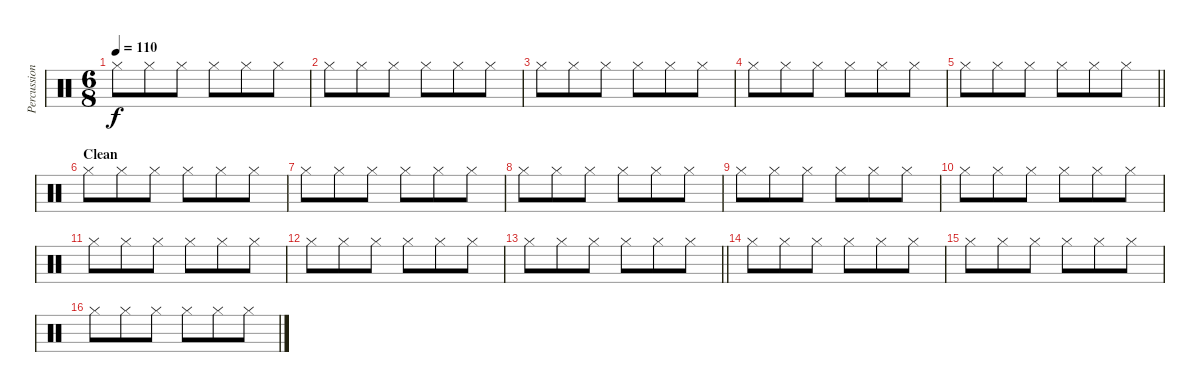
\track ("Percussion" "Percussion") {instrument percussion}
\staff {score}
\articulation defaults
\ts (6 8)
\tempo 110
\clef neutral
\ks c "Hi-Hat (closed)".8{dy f} "Hi-Hat (closed)".8 "Hi-Hat (closed)".8 "Hi-Hat (closed)".8 "Hi-Hat (closed)".8 "Hi-Hat (closed)".8
|
"Hi-Hat (closed)".8 "Hi-Hat (closed)".8 "Hi-Hat (closed)".8 "Hi-Hat (closed)".8 "Hi-Hat (closed)".8 "Hi-Hat (closed)".8 |
"Hi-Hat (closed)".8 "Hi-Hat (closed)".8 "Hi-Hat (closed)".8 "Hi-Hat (closed)".8 "Hi-Hat (closed)".8 "Hi-Hat (closed)".8 |
"Hi-Hat (closed)".8 "Hi-Hat (closed)".8 "Hi-Hat (closed)".8 "Hi-Hat (closed)".8 "Hi-Hat (closed)".8 "Hi-Hat (closed)".8 |
\barLineRight lightlight "Hi-Hat (closed)".8 "Hi-Hat (closed)".8 "Hi-Hat (closed)".8 "Hi-Hat (closed)".8 "Hi-Hat (closed)".8 "Hi-Hat (closed)".8
|
\section ("" "Clean")
"Hi-Hat (closed)".8 "Hi-Hat (closed)".8 "Hi-Hat (closed)".8 "Hi-Hat (closed)".8 "Hi-Hat (closed)".8 "Hi-Hat (closed)".8 |
"Hi-Hat (closed)".8 "Hi-Hat (closed)".8 "Hi-Hat (closed)".8 "Hi-Hat (closed)".8 "Hi-Hat (closed)".8 "Hi-Hat (closed)".8 |
"Hi-Hat (closed)".8 "Hi-Hat (closed)".8 "Hi-Hat (closed)".8 "Hi-Hat (closed)".8 "Hi-Hat (closed)".8 "Hi-Hat (closed)".8 |
"Hi-Hat (closed)".8 "Hi-Hat (closed)".8 "Hi-Hat (closed)".8 "Hi-Hat (closed)".8 "Hi-Hat (closed)".8 "Hi-Hat (closed)".8 |
"Hi-Hat (closed)".8 "Hi-Hat (closed)".8 "Hi-Hat (closed)".8 "Hi-Hat (closed)".8 "Hi-Hat (closed)".8 "Hi-Hat (closed)".8 |
"Hi-Hat (closed)".8 "Hi-Hat (closed)".8 "Hi-Hat (closed)".8 "Hi-Hat (closed)".8 "Hi-Hat (closed)".8 "Hi-Hat (closed)".8 |
"Hi-Hat (closed)".8 "Hi-Hat (closed)".8 "Hi-Hat (closed)".8 "Hi-Hat (closed)".8 "Hi-Hat (closed)".8 "Hi-Hat (closed)".8 |
\barLineRight lightlight "Hi-Hat (closed)".8 "Hi-Hat (closed)".8 "Hi-Hat (closed)".8 "Hi-Hat (closed)".8 "Hi-Hat (closed)".8 "Hi-Hat (closed)".8
|
\section ("" "")
"Hi-Hat (closed)".8 "Hi-Hat (closed)".8 "Hi-Hat (closed)".8 "Hi-Hat (closed)".8 "Hi-Hat (closed)".8 "Hi-Hat (closed)".8 |
"Hi-Hat (closed)".8 "Hi-Hat (closed)".8 "Hi-Hat (closed)".8 "Hi-Hat (closed)".8 "Hi-Hat (closed)".8 "Hi-Hat (closed)".8 |
"Hi-Hat (closed)".8 "Hi-Hat (closed)".8 "Hi-Hat (closed)".8 "Hi-Hat (closed)".8 "Hi-Hat (closed)".8 "Hi-Hat (closed)".8
